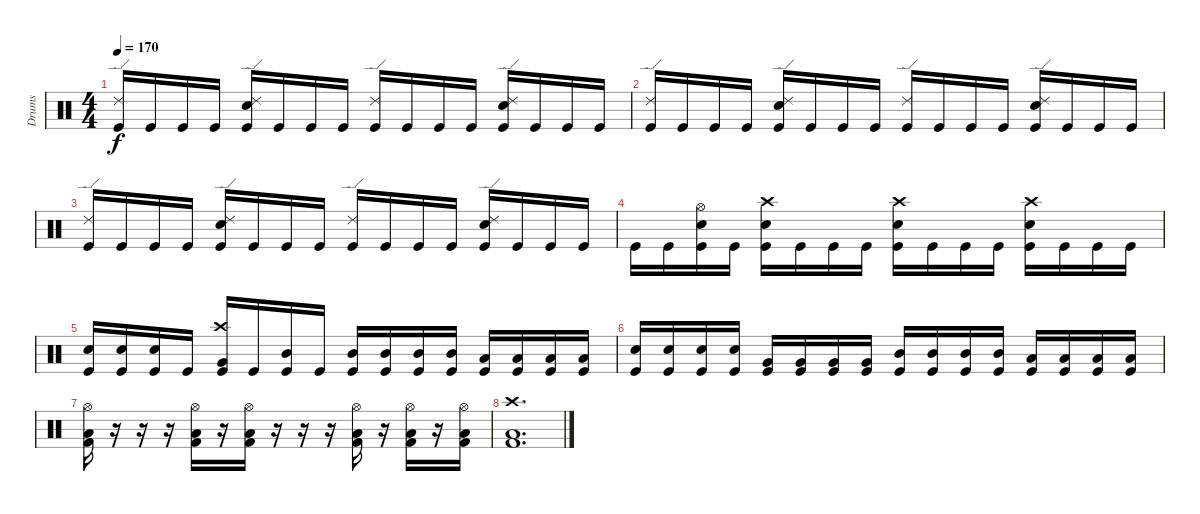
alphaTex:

\track ("Drums" "Drums") {instrument percussion}
\staff {score}
\articulation defaults
\ts (4 4)
\tempo 170
\clef neutral
\ks c
("Ride (edge) 2" "Kick (hit)").16{dy f} "Kick (hit)".16 "Kick (hit)".16 "Kick (hit)".16 ("Ride (edge) 2" "Electric Snare (hit)" "Kick (hit)").16 "Kick (hit)".16 "Kick (hit)".16 "Kick (hit)".16 ("Ride (edge) 2" "Kick (hit)").16 "Kick (hit)".16 "Kick (hit)".16 "Kick (hit)".16 ("Ride (edge) 2" "Electric Snare (hit)" "Kick (hit)").16 "Kick (hit)".16 "Kick (hit)".16 "Kick (hit)".16 |
("Ride (edge) 2" "Kick (hit)").16 "Kick (hit)".16 "Kick (hit)".16 "Kick (hit)".16 ("Ride (edge) 2" "Electric Snare (hit)" "Kick (hit)").16 "Kick (hit)".16 "Kick (hit)".16 "Kick (hit)".16 ("Ride (edge) 2" "Kick (hit)").16 "Kick (hit)".16 "Kick (hit)".16 "Kick (hit)".16 ("Ride (edge) 2" "Electric Snare (hit)" "Kick (hit)").16 "Kick (hit)".16 "Kick (hit)".16 "Kick (hit)".16 |
("Ride (edge) 2" "Kick (hit)").16 "Kick (hit)".16 "Kick (hit)".16 "Kick (hit)".16 ("Ride (edge) 2" "Electric Snare (hit)" "Kick (hit)").16 "Kick (hit)".16 "Kick (hit)".16 "Kick (hit)".16 ("Ride (edge) 2" "Kick (hit)").16 "Kick (hit)".16 "Kick (hit)".16 "Kick (hit)".16 ("Ride (edge) 2" "Electric Snare (hit)" "Kick (hit)").16 "Kick (hit)".16 "Kick (hit)".16 "Kick (hit)".16 |
"Kick (hit)".16 "Kick (hit)".16 ("Hi-Hat (open)" "Electric Snare (hit)" "Kick (hit)").16 "Kick (hit)".16 ("Crash high (hit)" "Electric Snare (hit)" "Kick (hit)").16 "Kick (hit)".16 "Kick (hit)".16 "Kick (hit)".16 ("Crash high (hit)" "Electric Snare (hit)" "Kick (hit)").16 "Kick (hit)".16 "Kick (hit)".16 "Kick (hit)".16 ("Crash high (hit)" "Electric Snare (hit)" "Kick (hit)").16 "Kick (hit)".16 "Kick (hit)".16 "Kick (hit)".16 |
("Electric Snare (hit)" "Kick (hit)").16 ("Electric Snare (hit)" "Kick (hit)").16 ("Electric Snare (hit)" "Kick (hit)").16 "Kick (hit)".16 ("Crash high (hit)" "Very Low Tom (hit)" "Kick (hit)").16 "Kick (hit)".16 ("Mid Tom (hit)" "Kick (hit)").16 "Kick (hit)".16 ("Mid Tom (hit)" "Kick (hit)").16 ("Mid Tom (hit)" "Kick (hit)").16 ("Mid Tom (hit)" "Kick (hit)").16 ("Mid Tom (hit)" "Kick (hit)").16 ("Low Tom (hit)" "Kick (hit)").16 ("Low Tom (hit)" "Kick (hit)").16 ("Low Tom (hit)" "Kick (hit)").16 ("Low Tom (hit)" "Kick (hit)").16 |
("Electric Snare (hit)" "Kick (hit)").16 ("Electric Snare (hit)" "Kick (hit)").16 ("Electric Snare (hit)" "Kick (hit)").16 ("Electric Snare (hit)" "Kick (hit)").16 ("Very Low Tom (hit)" "Kick (hit)").16 ("Very Low Tom (hit)" "Kick (hit)").16 ("Very Low Tom (hit)" "Kick (hit)").16 ("Very Low Tom (hit)" "Kick (hit)").16 ("Mid Tom (hit)" "Kick (hit)").16 ("Mid Tom (hit)" "Kick (hit)").16 ("Mid Tom (hit)" "Kick (hit)").16 ("Mid Tom (hit)" "Kick (hit)").16 ("Low Tom (hit)" "Kick (hit)").16 ("Low Tom (hit)" "Kick (hit)").16 ("Low Tom (hit)" "Kick (hit)").16 ("Low Tom (hit)" "Kick (hit)").16 |
("Hi-Hat (open)" "Low Floor Tom (hit)" "Kick (hit) 2").16 r.16 r.16 r.16 ("Hi-Hat (open)" "Low Floor Tom (hit)" "Kick (hit) 2").16 r.16 ("Hi-Hat (open)" "Low Floor Tom (hit)" "Kick (hit) 2").16 r.16 r.16 r.16 ("Hi-Hat (open)" "Low Floor Tom (hit)" "Kick (hit) 2").16 r.16 ("Hi-Hat (open)" "Low Floor Tom (hit)" "Kick (hit) 2").16 r.16 ("Hi-Hat (open)" "Low Floor Tom (hit)" "Kick (hit) 2").16 |
("Crash high (hit)" "Low Floor Tom (hit)" "Kick (hit) 2").1{d}
